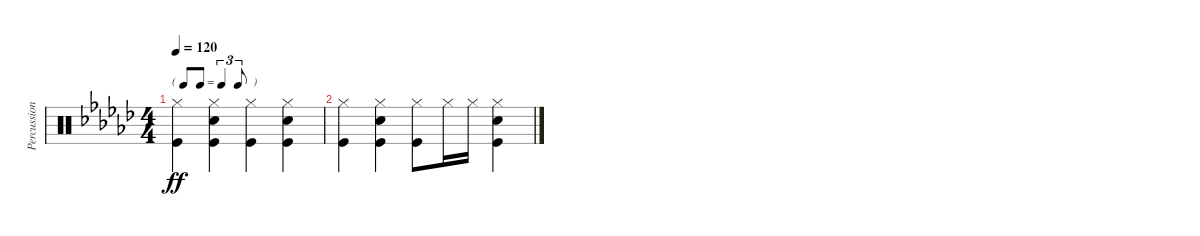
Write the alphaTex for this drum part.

\track ("Percussion" "Percussion") {instrument percussion}
\staff {score}
\articulation defaults
\ts (4 4)
\tf triplet8th
\tempo 120
\clef neutral
\ks gb
("Hi-Hat (closed)" "Kick (hit)").4{dy ff} ("Hi-Hat (closed)" "Snare (hit) 2" "Kick (hit)").4 ("Hi-Hat (closed)" "Kick (hit)").4 ("Hi-Hat (closed)" "Snare (hit) 2" "Kick (hit)").4 |
("Hi-Hat (closed)" "Kick (hit)").4 ("Hi-Hat (closed)" "Snare (hit) 2" "Kick (hit)").4 ("Hi-Hat (closed)" "Kick (hit)").8 "Hi-Hat (closed)".16 "Hi-Hat (closed)".16 ("Hi-Hat (closed)" "Snare (hit) 2" "Kick (hit)").4
